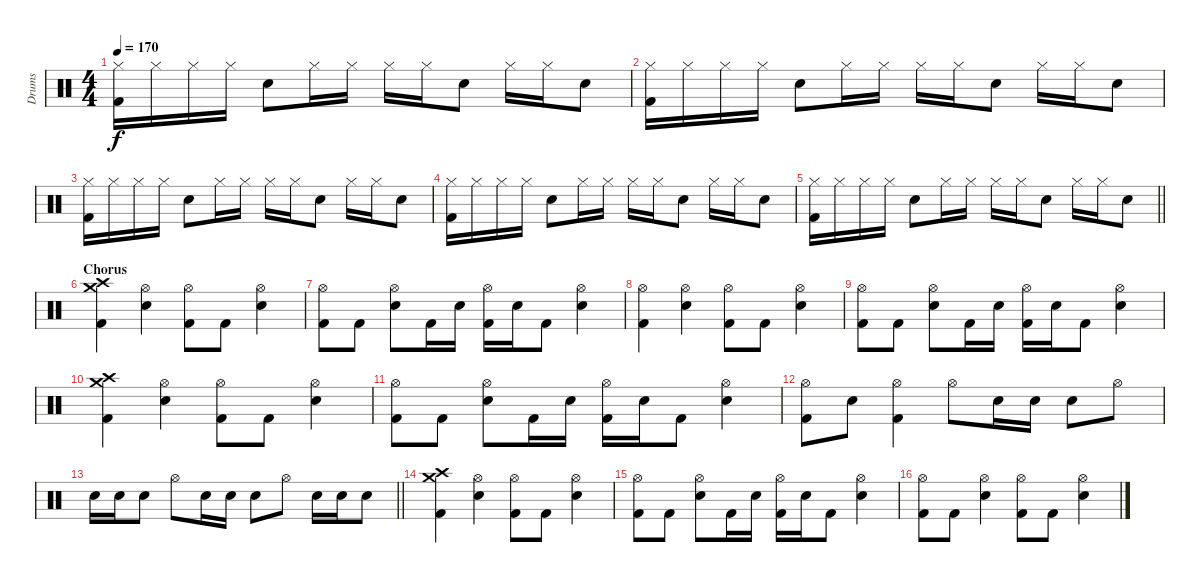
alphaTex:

\track ("Drums" "Drums") {instrument percussion}
\staff {score}
\articulation defaults
\ts (4 4)
\tempo 170
\clef neutral
\ks c
("Hi-Hat (closed)" "Kick (hit) 2").16{dy f} "Hi-Hat (closed)".16 "Hi-Hat (closed)".16 "Hi-Hat (closed)".16 "Electric Snare (hit)".8 "Hi-Hat (closed)".16 "Hi-Hat (closed)".16 "Hi-Hat (closed)".16 "Hi-Hat (closed)".16 "Electric Snare (hit)".8 "Hi-Hat (closed)".16 "Hi-Hat (closed)".16 "Electric Snare (hit)".8 |
("Hi-Hat (closed)" "Kick (hit) 2").16 "Hi-Hat (closed)".16 "Hi-Hat (closed)".16 "Hi-Hat (closed)".16 "Electric Snare (hit)".8 "Hi-Hat (closed)".16 "Hi-Hat (closed)".16 "Hi-Hat (closed)".16 "Hi-Hat (closed)".16 "Electric Snare (hit)".8 "Hi-Hat (closed)".16 "Hi-Hat (closed)".16 "Electric Snare (hit)".8 |
("Hi-Hat (closed)" "Kick (hit) 2").16 "Hi-Hat (closed)".16 "Hi-Hat (closed)".16 "Hi-Hat (closed)".16 "Electric Snare (hit)".8 "Hi-Hat (closed)".16 "Hi-Hat (closed)".16 "Hi-Hat (closed)".16 "Hi-Hat (closed)".16 "Electric Snare (hit)".8 "Hi-Hat (closed)".16 "Hi-Hat (closed)".16 "Electric Snare (hit)".8 |
("Hi-Hat (closed)" "Kick (hit) 2").16 "Hi-Hat (closed)".16 "Hi-Hat (closed)".16 "Hi-Hat (closed)".16 "Electric Snare (hit)".8 "Hi-Hat (closed)".16 "Hi-Hat (closed)".16 "Hi-Hat (closed)".16 "Hi-Hat (closed)".16 "Electric Snare (hit)".8 "Hi-Hat (closed)".16 "Hi-Hat (closed)".16 "Electric Snare (hit)".8 |
\barLineRight lightlight
("Hi-Hat (closed)" "Kick (hit) 2").16 "Hi-Hat (closed)".16 "Hi-Hat (closed)".16 "Hi-Hat (closed)".16 "Electric Snare (hit)".8 "Hi-Hat (closed)".16 "Hi-Hat (closed)".16 "Hi-Hat (closed)".16 "Hi-Hat (closed)".16 "Electric Snare (hit)".8 "Hi-Hat (closed)".16 "Hi-Hat (closed)".16 "Electric Snare (hit)".8 |
\section ("" "Chorus")
("Kick (hit) 2" "Crash medium (hit)" "Crash high (hit)").4{volume 16} ("Electric Snare (hit)" "Hi-Hat (open)").4 ("Kick (hit) 2" "Hi-Hat (open)").8 "Kick (hit) 2".8 ("Electric Snare (hit)" "Hi-Hat (open)").4 |
("Kick (hit) 2" "Hi-Hat (open)").8 "Kick (hit) 2".8 ("Electric Snare (hit)" "Hi-Hat (open)").8 "Kick (hit) 2".16 "Electric Snare (hit)".16 ("Kick (hit) 2" "Hi-Hat (open)").16 "Electric Snare (hit)".16 "Kick (hit) 2".8 ("Electric Snare (hit)" "Hi-Hat (open)").4 |
("Kick (hit) 2" "Hi-Hat (open)").4 ("Electric Snare (hit)" "Hi-Hat (open)").4 ("Kick (hit) 2" "Hi-Hat (open)").8 "Kick (hit) 2".8 ("Electric Snare (hit)" "Hi-Hat (open)").4 |
("Kick (hit) 2" "Hi-Hat (open)").8 "Kick (hit) 2".8 ("Electric Snare (hit)" "Hi-Hat (open)").8 "Kick (hit) 2".16 "Electric Snare (hit)".16 ("Kick (hit) 2" "Hi-Hat (open)").16 "Electric Snare (hit)".16 "Kick (hit) 2".8 ("Electric Snare (hit)" "Hi-Hat (open)").4 |
("Kick (hit) 2" "Crash medium (hit)" "Crash high (hit)").4 ("Electric Snare (hit)" "Hi-Hat (open)").4 ("Kick (hit) 2" "Hi-Hat (open)").8 "Kick (hit) 2".8 ("Electric Snare (hit)" "Hi-Hat (open)").4 |
("Kick (hit) 2" "Hi-Hat (open)").8 "Kick (hit) 2".8 ("Electric Snare (hit)" "Hi-Hat (open)").8 "Kick (hit) 2".16 "Electric Snare (hit)".16 ("Kick (hit) 2" "Hi-Hat (open)").16 "Electric Snare (hit)".16 "Kick (hit) 2".8 ("Electric Snare (hit)" "Hi-Hat (open)").4 |
("Kick (hit) 2" "Hi-Hat (open)").8 "Electric Snare (hit)".8 ("Kick (hit) 2" "Hi-Hat (open)").4 "Hi-Hat (open)".8 "Electric Snare (hit)".16 "Electric Snare (hit)".16 "Electric Snare (hit)".8 "Hi-Hat (open)".8 |
\barLineRight lightlight "Electric Snare (hit)".16 "Electric Snare (hit)".16 "Electric Snare (hit)".8 "Hi-Hat (open)".8 "Electric Snare (hit)".16 "Electric Snare (hit)".16 "Electric Snare (hit)".8 "Hi-Hat (open)".8 "Electric Snare (hit)".16 "Electric Snare (hit)".16 "Electric Snare (hit)".8
|
("Kick (hit) 2" "Crash medium (hit)" "Crash high (hit)").4 ("Electric Snare (hit)" "Hi-Hat (open)").4 ("Kick (hit) 2" "Hi-Hat (open)").8 "Kick (hit) 2".8 ("Electric Snare (hit)" "Hi-Hat (open)").4 |
("Kick (hit) 2" "Hi-Hat (open)").8 "Kick (hit) 2".8 ("Electric Snare (hit)" "Hi-Hat (open)").8 "Kick (hit) 2".16 "Electric Snare (hit)".16 ("Kick (hit) 2" "Hi-Hat (open)").16 "Electric Snare (hit)".16 "Kick (hit) 2".8 ("Electric Snare (hit)" "Hi-Hat (open)").4 |
("Kick (hit) 2" "Hi-Hat (open)").8 "Kick (hit) 2".8 ("Electric Snare (hit)" "Hi-Hat (open)").4 ("Kick (hit) 2" "Hi-Hat (open)").8 "Kick (hit) 2".8 ("Electric Snare (hit)" "Hi-Hat (open)").4
